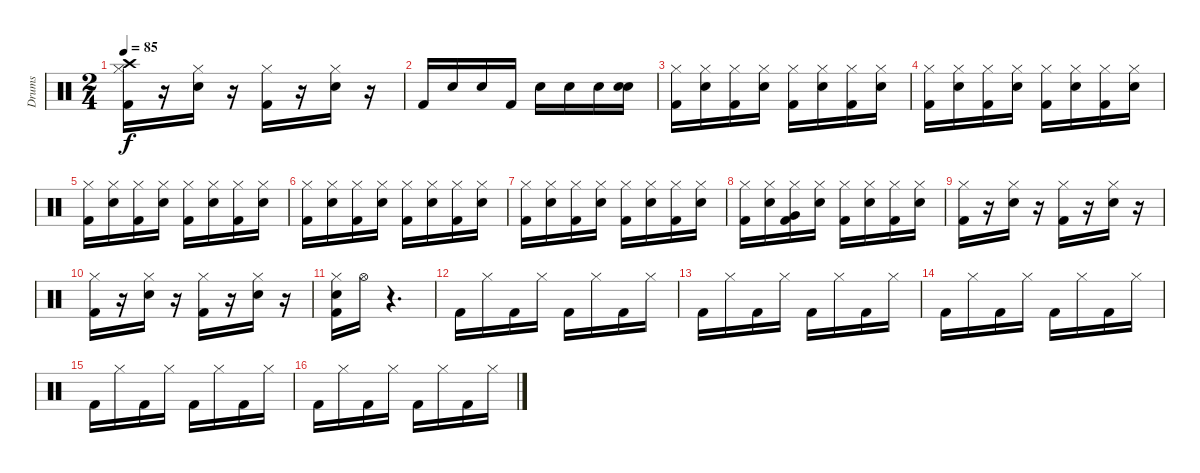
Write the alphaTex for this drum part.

\track ("Drums" "Drums") {instrument percussion}
\staff {score}
\articulation defaults
\ts (2 4)
\tempo 85
\clef neutral
\ks c
("Hi-Hat (closed)" "Kick (hit) 2" "Crash high (hit)").16{dy f} r.16 ("Snare (hit) 2" "Hi-Hat (closed)").16 r.16 ("Hi-Hat (closed)" "Kick (hit) 2").16 r.16 ("Hi-Hat (closed)" "Snare (hit) 2").16 r.16 |
"Kick (hit) 2".16 "Snare (hit) 2".16 "Snare (hit) 2".16 "Kick (hit) 2".16 "Snare (hit) 2".16 "Snare (hit) 2".16 "Snare (hit) 2".16 ("Snare (hit) 2" "Snare (hit) 2").16 |
("Hi-Hat (closed)" "Kick (hit) 2").16 ("Hi-Hat (closed)" "Snare (hit) 2").16 ("Hi-Hat (closed)" "Kick (hit) 2").16 ("Snare (hit) 2" "Hi-Hat (closed)").16 ("Hi-Hat (closed)" "Kick (hit) 2").16 ("Hi-Hat (closed)" "Snare (hit) 2").16 ("Kick (hit) 2" "Hi-Hat (closed)").16 ("Snare (hit) 2" "Hi-Hat (closed)").16 |
("Kick (hit) 2" "Hi-Hat (closed)").16 ("Hi-Hat (closed)" "Snare (hit) 2").16 ("Hi-Hat (closed)" "Kick (hit) 2").16 ("Snare (hit) 2" "Hi-Hat (closed)").16 ("Hi-Hat (closed)" "Kick (hit) 2").16 ("Snare (hit) 2" "Hi-Hat (closed)").16 ("Kick (hit) 2" "Hi-Hat (closed)").16 ("Hi-Hat (closed)" "Snare (hit) 2").16 |
("Hi-Hat (closed)" "Kick (hit) 2").16 ("Hi-Hat (closed)" "Snare (hit) 2").16 ("Hi-Hat (closed)" "Kick (hit) 2").16 ("Hi-Hat (closed)" "Snare (hit) 2").16 ("Kick (hit) 2" "Hi-Hat (closed)").16 ("Hi-Hat (closed)" "Snare (hit) 2").16 ("Hi-Hat (closed)" "Kick (hit) 2").16 ("Hi-Hat (closed)" "Snare (hit) 2").16 |
("Hi-Hat (closed)" "Kick (hit) 2").16 ("Hi-Hat (closed)" "Snare (hit) 2").16 ("Kick (hit) 2" "Hi-Hat (closed)").16 ("Hi-Hat (closed)" "Snare (hit) 2").16 ("Kick (hit) 2" "Hi-Hat (closed)").16 ("Snare (hit) 2" "Hi-Hat (closed)").16 ("Hi-Hat (closed)" "Kick (hit) 2").16 ("Hi-Hat (closed)" "Snare (hit) 2").16 |
("Kick (hit) 2" "Hi-Hat (closed)").16 ("Hi-Hat (closed)" "Snare (hit) 2").16 ("Kick (hit) 2" "Hi-Hat (closed)").16 ("Hi-Hat (closed)" "Snare (hit) 2").16 ("Hi-Hat (closed)" "Kick (hit) 2").16 ("Snare (hit) 2" "Hi-Hat (closed)").16 ("Hi-Hat (closed)" "Kick (hit) 2").16 ("Hi-Hat (closed)" "Snare (hit) 2").16 |
("Kick (hit) 2" "Hi-Hat (closed)").16 ("Hi-Hat (closed)" "Snare (hit) 2").16 ("Very Low Tom (hit)" "Hi-Hat (closed)" "Kick (hit) 2").16 ("Hi-Hat (closed)" "Snare (hit) 2").16 ("Hi-Hat (closed)" "Kick (hit) 2").16 ("Hi-Hat (closed)" "Snare (hit) 2").16 ("Hi-Hat (closed)" "Kick (hit) 2").16 ("Snare (hit) 2" "Hi-Hat (closed)").16 |
("Hi-Hat (closed)" "Kick (hit) 2").16 r.16 ("Hi-Hat (closed)" "Snare (hit) 2").16 r.16 ("Hi-Hat (closed)" "Kick (hit) 2").16 r.16 ("Hi-Hat (closed)" "Snare (hit) 2").16 r.16 |
("Hi-Hat (closed)" "Kick (hit) 2").16 r.16 ("Snare (hit) 2" "Hi-Hat (closed)").16 r.16 ("Hi-Hat (closed)" "Kick (hit) 2").16 r.16 ("Snare (hit) 2" "Hi-Hat (closed)").16 r.16 |
("Hi-Hat (closed)" "Kick (hit) 2" "Snare (hit) 2").16 "Hi-Hat (open)".16 r.4{d} |
"Kick (hit) 2".16 "Hi-Hat (closed)".16 "Kick (hit) 2".16 "Hi-Hat (closed)".16 "Kick (hit) 2".16 "Hi-Hat (closed)".16 "Kick (hit) 2".16 "Hi-Hat (closed)".16 |
"Kick (hit) 2".16 "Hi-Hat (closed)".16 "Kick (hit) 2".16 "Hi-Hat (closed)".16 "Kick (hit) 2".16 "Hi-Hat (closed)".16 "Kick (hit) 2".16 "Hi-Hat (closed)".16 |
"Kick (hit) 2".16 "Hi-Hat (closed)".16 "Kick (hit) 2".16 "Hi-Hat (closed)".16 "Kick (hit) 2".16 "Hi-Hat (closed)".16 "Kick (hit) 2".16 "Hi-Hat (closed)".16 |
"Kick (hit) 2".16 "Hi-Hat (closed)".16 "Kick (hit) 2".16 "Hi-Hat (closed)".16 "Kick (hit) 2".16 "Hi-Hat (closed)".16 "Kick (hit) 2".16 "Hi-Hat (closed)".16 |
"Kick (hit) 2".16 "Hi-Hat (closed)".16 "Kick (hit) 2".16 "Hi-Hat (closed)".16 "Kick (hit) 2".16 "Hi-Hat (closed)".16 "Kick (hit) 2".16 "Hi-Hat (closed)".16
